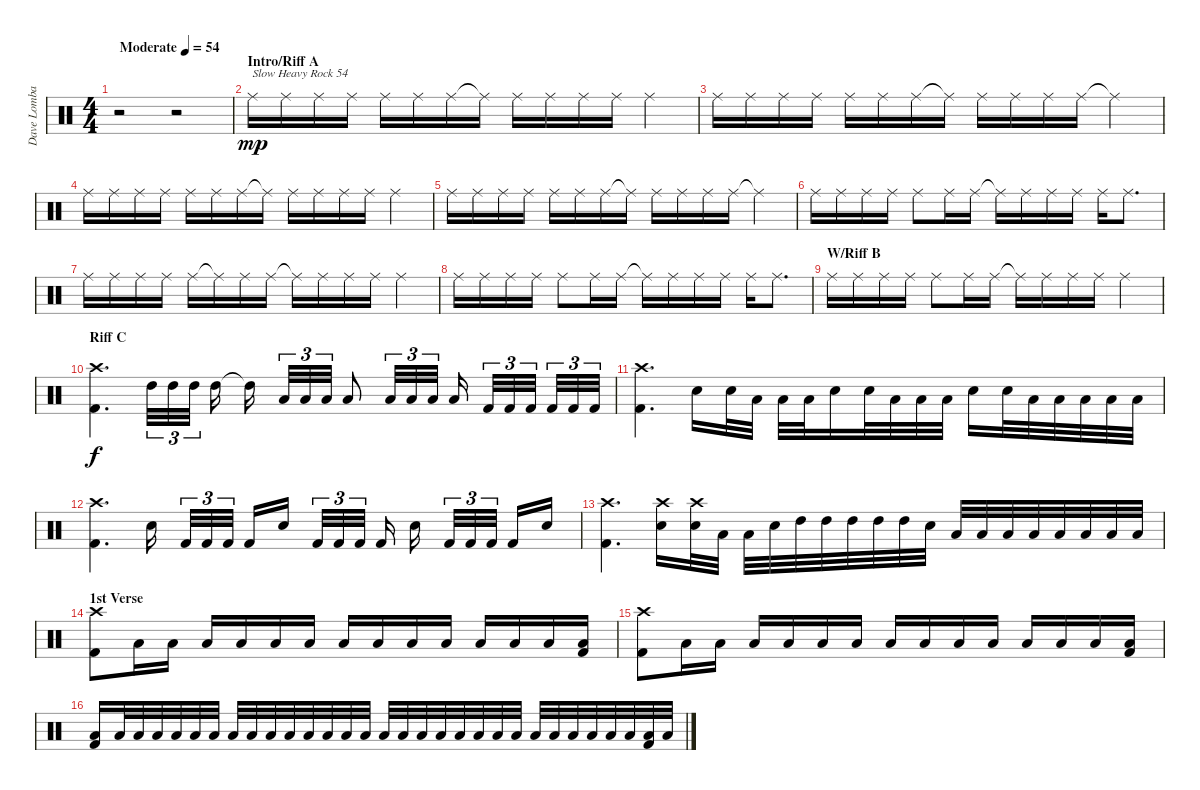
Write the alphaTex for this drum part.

\track ("Dave Lombardo" "Dave Lomba") {instrument percussion}
\staff {score}
\articulation defaults
\ts (4 4)
\tempo (54 "Moderate")
\clef neutral
\ks c
r.2{dy mp} r.2 |
\section ("" "Intro/Riff A")
"Ride (middle)".16{txt "Slow Heavy Rock 54"} "Ride (middle)".16 "Ride (middle)".16 "Ride (middle)".16 "Ride (middle)".16 "Ride (middle)".16 "Ride (middle)".16 "Ride (middle)"{t}.16 "Ride (middle)".16 "Ride (middle)".16 "Ride (middle)".16 "Ride (middle)".16 "Ride (middle)".4 |
"Ride (middle)".16 "Ride (middle)".16 "Ride (middle)".16 "Ride (middle)".16 "Ride (middle)".16 "Ride (middle)".16 "Ride (middle)".16 "Ride (middle)"{t}.16 "Ride (middle)".16 "Ride (middle)".16 "Ride (middle)".16 "Ride (middle)".16 "Ride (middle)"{t}.4 |
"Ride (middle)".16 "Ride (middle)".16 "Ride (middle)".16 "Ride (middle)".16 "Ride (middle)".16 "Ride (middle)".16 "Ride (middle)".16 "Ride (middle)"{t}.16 "Ride (middle)".16 "Ride (middle)".16 "Ride (middle)".16 "Ride (middle)".16 "Ride (middle)".4 |
"Ride (middle)".16 "Ride (middle)".16 "Ride (middle)".16 "Ride (middle)".16 "Ride (middle)".16 "Ride (middle)".16 "Ride (middle)".16 "Ride (middle)"{t}.16 "Ride (middle)".16 "Ride (middle)".16 "Ride (middle)".16 "Ride (middle)".16 "Ride (middle)"{t}.4 |
"Ride (middle)".16 "Ride (middle)".16 "Ride (middle)".16 "Ride (middle)".16 "Ride (middle)".8 "Ride (middle)".16 "Ride (middle)".16 "Ride (middle)"{t}.16 "Ride (middle)".16 "Ride (middle)".16 "Ride (middle)".16 "Ride (middle)".16 "Ride (middle)".8{d} |
"Ride (middle)".16 "Ride (middle)".16 "Ride (middle)".16 "Ride (middle)".16 "Ride (middle)".16 "Ride (middle)"{t}.16 "Ride (middle)".16 "Ride (middle)".16 "Ride (middle)"{t}.16 "Ride (middle)".16 "Ride (middle)".16 "Ride (middle)".16 "Ride (middle)".4 |
"Ride (middle)".16 "Ride (middle)".16 "Ride (middle)".16 "Ride (middle)".16 "Ride (middle)".8 "Ride (middle)".16 "Ride (middle)".16 "Ride (middle)"{t}.16 "Ride (middle)".16 "Ride (middle)".16 "Ride (middle)".16 "Ride (middle)".16 "Ride (middle)".8{d} |
\section ("" "W/Riff B")
"Ride (middle)".16 "Ride (middle)".16 "Ride (middle)".16 "Ride (middle)".16 "Ride (middle)".8 "Ride (middle)".16 "Ride (middle)".16 "Ride (middle)"{t}.16 "Ride (middle)".16 "Ride (middle)".16 "Ride (middle)".16 "Ride (middle)".4 |
\section ("" "Riff C")
("Crash high (hit)" "Kick (hit) 2").4{d dy f} "High Tom (hit)".32{tu (3 2)} "High Tom (hit)".32{tu (3 2)} "High Tom (hit)".32{tu (3 2)} "High Tom (hit)".16 "High Tom (hit)"{t}.16 "Low Tom (hit)".32{tu (3 2)} "Low Tom (hit)".32{tu (3 2)} "Low Tom (hit)".32{tu (3 2)} "Low Tom (hit)".8 "Low Floor Tom (hit)".32{tu (3 2)} "Low Floor Tom (hit)".32{tu (3 2)} "Low Floor Tom (hit)".32{tu (3 2)} "Low Floor Tom (hit)".16 "Kick (hit) 2".32{tu (3 2)} "Kick (hit) 2".32{tu (3 2)} "Kick (hit) 2".32{tu (3 2)} "Kick (hit) 2".32{tu (3 2)} "Kick (hit) 2".32{tu (3 2)} "Kick (hit) 2".32{tu (3 2)} |
("Kick (hit) 2" "Crash high (hit)").4{d} "Snare (hit) 2".16 "Snare (hit) 2".32 "Low Tom (hit)".32 "Low Tom (hit)".32 "Low Tom (hit)".32 "Snare (hit) 2".16 "Snare (hit) 2".32 "Low Floor Tom (hit)".32 "Low Floor Tom (hit)".32 "Low Floor Tom (hit)".32 "Snare (hit) 2".16 "Snare (hit) 2".32 "Low Floor Tom (hit)".32 "Low Floor Tom (hit)".32 "Low Floor Tom (hit)".32 "Low Tom (hit)".32 "Low Tom (hit)".32 |
("Crash high (hit)" "Kick (hit) 2").4{d} "Snare (hit) 2".16 "Kick (hit) 2".32{tu (3 2)} "Kick (hit) 2".32{tu (3 2)} "Kick (hit) 2".32{tu (3 2)} "Kick (hit) 2".16 "Snare (hit) 2".16 "Kick (hit) 2".32{tu (3 2)} "Kick (hit) 2".32{tu (3 2)} "Kick (hit) 2".32{tu (3 2)} "Kick (hit) 2".16 "Snare (hit) 2".16 "Kick (hit) 2".32{tu (3 2)} "Kick (hit) 2".32{tu (3 2)} "Kick (hit) 2".32{tu (3 2)} "Kick (hit) 2".16 "Snare (hit) 2".16 |
("Kick (hit) 2" "Crash high (hit)").4{d} ("Snare (hit) 2" "Crash high (hit)").16 ("Snare (hit) 2" "Crash high (hit)").32 "Low Tom (hit)".32 "Low Tom (hit)".32 "Snare (hit) 2".32 "High Tom (hit)".32 "High Tom (hit)".32 "High Tom (hit)".32 "High Tom (hit)".32 "High Tom (hit)".32 "Snare (hit) 2".32 "Low Tom (hit)".32 "Low Tom (hit)".32 "Low Tom (hit)".32 "Low Tom (hit)".32 "Low Tom (hit)".32 "Low Floor Tom (hit)".32 "Low Floor Tom (hit)".32 "Low Floor Tom (hit)".32 |
\section ("" "1st Verse")
("Kick (hit) 2" "Crash high (hit)").8 "Low Floor Tom (hit)".16 "Low Floor Tom (hit)".16 "Low Floor Tom (hit)".16 "Low Floor Tom (hit)".16 "Low Floor Tom (hit)".16 "Low Floor Tom (hit)".16 "Low Floor Tom (hit)".16 "Low Floor Tom (hit)".16 "Low Floor Tom (hit)".16 "Low Floor Tom (hit)".16 "Low Floor Tom (hit)".16 "Low Floor Tom (hit)".16 "Low Floor Tom (hit)".16 ("Low Floor Tom (hit)" "Kick (hit) 2").16 |
("Kick (hit) 2" "Crash high (hit)").8 "Low Floor Tom (hit)".16 "Low Floor Tom (hit)".16 "Low Floor Tom (hit)".16 "Low Floor Tom (hit)".16 "Low Floor Tom (hit)".16 "Low Floor Tom (hit)".16 "Low Floor Tom (hit)".16 "Low Floor Tom (hit)".16 "Low Floor Tom (hit)".16 "Low Floor Tom (hit)".16 "Low Floor Tom (hit)".16 "Low Floor Tom (hit)".16 "Low Floor Tom (hit)".16 ("Low Floor Tom (hit)" "Kick (hit) 2").16 |
("Kick (hit) 2" "Low Floor Tom (hit)").16 "Low Floor Tom (hit)".32 "Low Floor Tom (hit)".32 "Low Floor Tom (hit)".32 "Low Floor Tom (hit)".32 "Low Floor Tom (hit)".32 "Low Floor Tom (hit)".32 "Low Floor Tom (hit)".32 "Low Floor Tom (hit)".32 "Low Floor Tom (hit)".32 "Low Floor Tom (hit)".32 "Low Floor Tom (hit)".32 "Low Floor Tom (hit)".32 "Low Floor Tom (hit)".32 "Low Floor Tom (hit)".32 "Low Floor Tom (hit)".32 "Low Floor Tom (hit)".32 "Low Floor Tom (hit)".32 "Low Floor Tom (hit)".32 "Low Floor Tom (hit)".32 "Low Floor Tom (hit)".32 "Low Floor Tom (hit)".32 "Low Floor Tom (hit)".32 "Low Floor Tom (hit)".32 "Low Floor Tom (hit)".32 "Low Floor Tom (hit)".32 "Low Floor Tom (hit)".32 "Low Floor Tom (hit)".32 "Low Floor Tom (hit)".32 ("Low Floor Tom (hit)" "Kick (hit) 2").32 "Low Floor Tom (hit)".32
